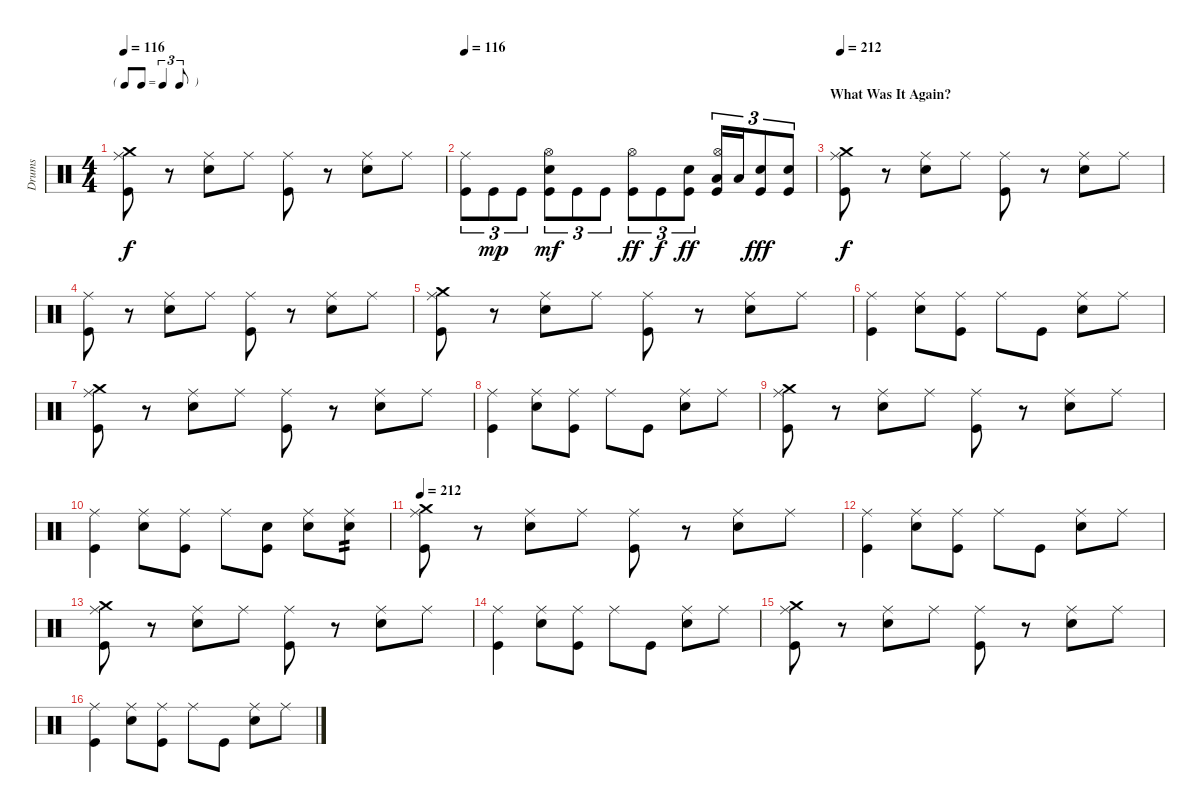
\track ("Drums" "Drums") {instrument percussion}
\staff {score}
\articulation defaults
\ts (4 4)
\tf triplet8th
\tempo 116
\clef neutral
\ks c
("Crash medium (hit)" "Ride (middle)" "Kick (hit)").8{dy f} r.8 ("Ride (middle)" "Electric Snare (hit)").8 "Ride (middle)".8 ("Ride (middle)" "Kick (hit)").8 r.8 ("Ride (middle)" "Electric Snare (hit)").8 "Ride (middle)".8 |
\tempo 116
("Ride (middle)" "Kick (hit)").8{tu (3 2)} "Kick (hit)".8{tu (3 2) dy mp} "Kick (hit)".8{tu (3 2)} ("Hi-Hat (open)" "Electric Snare (hit)" "Kick (hit)").8{tu (3 2) dy mf} "Kick (hit)".8{tu (3 2)} "Kick (hit)".8{tu (3 2)} ("Hi-Hat (open)" "Kick (hit)").8{tu (3 2) dy ff} "Kick (hit)".8{tu (3 2) dy f} ("Electric Snare (hit)" "Kick (hit)").8{tu (3 2) dy ff} ("Hi-Hat (open)" "Low Tom (hit)" "Kick (hit)").16{tu (3 2)} "Low Tom (hit)".16{tu (3 2)} ("Electric Snare (hit)" "Kick (hit)").8{tu (3 2) dy fff} ("Electric Snare (hit)" "Kick (hit)").8{tu (3 2)} |
\section ("" "What Was It Again?")
\tempo 212
("Crash medium (hit)" "Ride (middle)" "Kick (hit)").8{dy f} r.8 ("Ride (middle)" "Electric Snare (hit)").8 "Ride (middle)".8 ("Ride (middle)" "Kick (hit)").8 r.8 ("Ride (middle)" "Electric Snare (hit)").8 "Ride (middle)".8 |
("Ride (middle)" "Kick (hit)").8 r.8 ("Ride (middle)" "Electric Snare (hit)").8 "Ride (middle)".8 ("Ride (middle)" "Kick (hit)").8 r.8 ("Ride (middle)" "Electric Snare (hit)").8 "Ride (middle)".8 |
("Crash medium (hit)" "Ride (middle)" "Kick (hit)").8 r.8 ("Ride (middle)" "Electric Snare (hit)").8 "Ride (middle)".8 ("Ride (middle)" "Kick (hit)").8 r.8 ("Ride (middle)" "Electric Snare (hit)").8 "Ride (middle)".8 |
("Ride (middle)" "Kick (hit)").4 ("Ride (middle)" "Electric Snare (hit)").8 ("Ride (middle)" "Kick (hit)").8 "Ride (middle)".8 "Kick (hit)".8 ("Ride (middle)" "Electric Snare (hit)").8 "Ride (middle)".8 |
("Crash medium (hit)" "Ride (middle)" "Kick (hit)").8 r.8 ("Ride (middle)" "Electric Snare (hit)").8 "Ride (middle)".8 ("Ride (middle)" "Kick (hit)").8 r.8 ("Ride (middle)" "Electric Snare (hit)").8 "Ride (middle)".8 |
("Ride (middle)" "Kick (hit)").4 ("Ride (middle)" "Electric Snare (hit)").8 ("Ride (middle)" "Kick (hit)").8 "Ride (middle)".8 "Kick (hit)".8 ("Ride (middle)" "Electric Snare (hit)").8 "Ride (middle)".8 |
("Crash medium (hit)" "Ride (middle)" "Kick (hit)").8 r.8 ("Ride (middle)" "Electric Snare (hit)").8 "Ride (middle)".8 ("Ride (middle)" "Kick (hit)").8 r.8 ("Ride (middle)" "Electric Snare (hit)").8 "Ride (middle)".8 |
("Ride (middle)" "Kick (hit)").4 ("Ride (middle)" "Electric Snare (hit)").8 ("Ride (middle)" "Kick (hit)").8 "Ride (middle)".8 ("Electric Snare (hit)" "Kick (hit)").8 ("Ride (middle)" "Electric Snare (hit)").8 ("Ride (middle)" "Electric Snare (hit)").8{tp 2} |
\tempo 212
("Crash medium (hit)" "Ride (middle)" "Kick (hit)").8 r.8 ("Ride (middle)" "Electric Snare (hit)").8 "Ride (middle)".8 ("Ride (middle)" "Kick (hit)").8 r.8 ("Ride (middle)" "Electric Snare (hit)").8 "Ride (middle)".8 |
("Ride (middle)" "Kick (hit)").4 ("Ride (middle)" "Electric Snare (hit)").8 ("Ride (middle)" "Kick (hit)").8 "Ride (middle)".8 "Kick (hit)".8 ("Ride (middle)" "Electric Snare (hit)").8 "Ride (middle)".8 |
("Crash medium (hit)" "Ride (middle)" "Kick (hit)").8 r.8 ("Ride (middle)" "Electric Snare (hit)").8 "Ride (middle)".8 ("Ride (middle)" "Kick (hit)").8 r.8 ("Ride (middle)" "Electric Snare (hit)").8 "Ride (middle)".8 |
("Ride (middle)" "Kick (hit)").4 ("Ride (middle)" "Electric Snare (hit)").8 ("Ride (middle)" "Kick (hit)").8 "Ride (middle)".8 "Kick (hit)".8 ("Ride (middle)" "Electric Snare (hit)").8 "Ride (middle)".8 |
("Crash medium (hit)" "Ride (middle)" "Kick (hit)").8 r.8 ("Ride (middle)" "Electric Snare (hit)").8 "Ride (middle)".8 ("Ride (middle)" "Kick (hit)").8 r.8 ("Ride (middle)" "Electric Snare (hit)").8 "Ride (middle)".8 |
("Ride (middle)" "Kick (hit)").4 ("Ride (middle)" "Electric Snare (hit)").8 ("Ride (middle)" "Kick (hit)").8 "Ride (middle)".8 "Kick (hit)".8 ("Ride (middle)" "Electric Snare (hit)").8 "Ride (middle)".8
